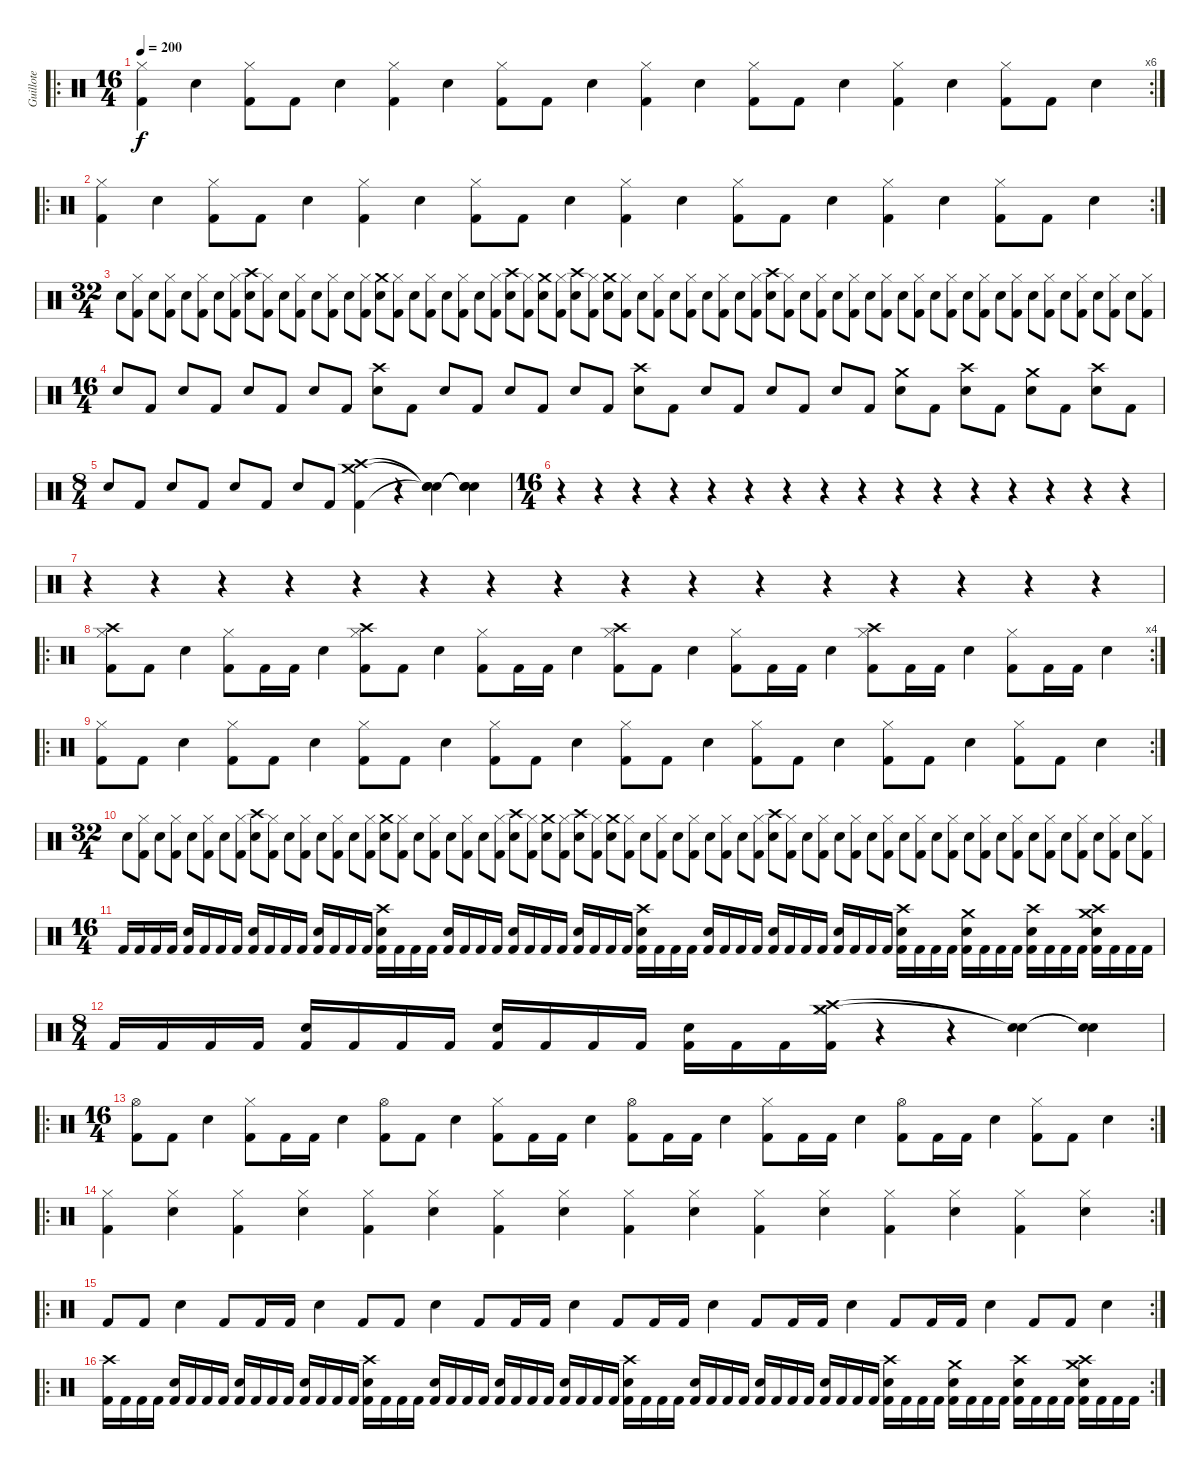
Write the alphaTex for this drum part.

\track ("Guillote" "Guillote") {instrument percussion}
\staff {score}
\articulation defaults
\ro
\rc 6
\ts (16 4)
\tempo 200
\clef neutral
\ks c
("Hi-Hat (closed)" "Kick (hit) 2").4{dy f} "Electric Snare (hit)".4 ("Hi-Hat (closed)" "Kick (hit) 2").8 "Kick (hit) 2".8 "Electric Snare (hit)".4 ("Hi-Hat (closed)" "Kick (hit) 2").4 "Electric Snare (hit)".4 ("Hi-Hat (closed)" "Kick (hit) 2").8 "Kick (hit) 2".8 "Electric Snare (hit)".4 ("Hi-Hat (closed)" "Kick (hit) 2").4 "Electric Snare (hit)".4 ("Hi-Hat (closed)" "Kick (hit) 2").8 "Kick (hit) 2".8 "Electric Snare (hit)".4 ("Hi-Hat (closed)" "Kick (hit) 2").4 "Electric Snare (hit)".4 ("Hi-Hat (closed)" "Kick (hit) 2").8 "Kick (hit) 2".8 "Electric Snare (hit)".4 |
\ro
\rc 2
("Hi-Hat (closed)" "Kick (hit) 2").4 "Electric Snare (hit)".4 ("Hi-Hat (closed)" "Kick (hit) 2").8 "Kick (hit) 2".8 "Electric Snare (hit)".4 ("Hi-Hat (closed)" "Kick (hit) 2").4 "Electric Snare (hit)".4 ("Hi-Hat (closed)" "Kick (hit) 2").8 "Kick (hit) 2".8 "Electric Snare (hit)".4 ("Hi-Hat (closed)" "Kick (hit) 2").4 "Electric Snare (hit)".4 ("Hi-Hat (closed)" "Kick (hit) 2").8 "Kick (hit) 2".8 "Electric Snare (hit)".4 ("Hi-Hat (closed)" "Kick (hit) 2").4 "Electric Snare (hit)".4 ("Hi-Hat (closed)" "Kick (hit) 2").8 "Kick (hit) 2".8 "Electric Snare (hit)".4 |
\ts (32 4)
"Electric Snare (hit)".8 ("Hi-Hat (closed)" "Kick (hit) 2").8 "Electric Snare (hit)".8 ("Hi-Hat (closed)" "Kick (hit) 2").8 "Electric Snare (hit)".8 ("Hi-Hat (closed)" "Kick (hit) 2").8 "Electric Snare (hit)".8 ("Hi-Hat (closed)" "Kick (hit) 2").8 ("Crash high (hit)" "Electric Snare (hit)").8 ("Hi-Hat (closed)" "Kick (hit) 2").8 "Electric Snare (hit)".8 ("Hi-Hat (closed)" "Kick (hit) 2").8 "Electric Snare (hit)".8 ("Hi-Hat (closed)" "Kick (hit) 2").8 "Electric Snare (hit)".8 ("Hi-Hat (closed)" "Kick (hit) 2").8 ("Crash medium (hit)" "Electric Snare (hit)").8 ("Hi-Hat (closed)" "Kick (hit) 2").8 "Electric Snare (hit)".8 ("Hi-Hat (closed)" "Kick (hit) 2").8 "Electric Snare (hit)".8 ("Hi-Hat (closed)" "Kick (hit) 2").8 "Electric Snare (hit)".8 ("Hi-Hat (closed)" "Kick (hit) 2").8 ("Crash high (hit)" "Electric Snare (hit)").8 ("Hi-Hat (closed)" "Kick (hit) 2").8 ("Crash medium (hit)" "Electric Snare (hit)").8 ("Hi-Hat (closed)" "Kick (hit) 2").8 ("Crash high (hit)" "Electric Snare (hit)").8 ("Hi-Hat (closed)" "Kick (hit) 2").8 ("Crash medium (hit)" "Electric Snare (hit)").8 ("Hi-Hat (closed)" "Kick (hit) 2").8 "Electric Snare (hit)".8 ("Hi-Hat (closed)" "Kick (hit) 2").8 "Electric Snare (hit)".8 ("Hi-Hat (closed)" "Kick (hit) 2").8 "Electric Snare (hit)".8 ("Hi-Hat (closed)" "Kick (hit) 2").8 "Electric Snare (hit)".8 ("Hi-Hat (closed)" "Kick (hit) 2").8 ("Crash high (hit)" "Electric Snare (hit)").8 ("Hi-Hat (closed)" "Kick (hit) 2").8 "Electric Snare (hit)".8 ("Hi-Hat (closed)" "Kick (hit) 2").8 "Electric Snare (hit)".8 ("Hi-Hat (closed)" "Kick (hit) 2").8 "Electric Snare (hit)".8 ("Hi-Hat (closed)" "Kick (hit) 2").8 "Electric Snare (hit)".8 ("Hi-Hat (closed)" "Kick (hit) 2").8 "Electric Snare (hit)".8 ("Hi-Hat (closed)" "Kick (hit) 2").8 "Electric Snare (hit)".8 ("Hi-Hat (closed)" "Kick (hit) 2").8 "Electric Snare (hit)".8 ("Hi-Hat (closed)" "Kick (hit) 2").8 "Electric Snare (hit)".8 ("Hi-Hat (closed)" "Kick (hit) 2").8 "Electric Snare (hit)".8 ("Hi-Hat (closed)" "Kick (hit) 2").8 "Electric Snare (hit)".8 ("Hi-Hat (closed)" "Kick (hit) 2").8 "Electric Snare (hit)".8 ("Hi-Hat (closed)" "Kick (hit) 2").8 |
\ts (16 4)
"Electric Snare (hit)".8 "Kick (hit) 2".8 "Electric Snare (hit)".8 "Kick (hit) 2".8 "Electric Snare (hit)".8 "Kick (hit) 2".8 "Electric Snare (hit)".8 "Kick (hit) 2".8 ("Crash high (hit)" "Electric Snare (hit)").8 "Kick (hit) 2".8 "Electric Snare (hit)".8 "Kick (hit) 2".8 "Electric Snare (hit)".8 "Kick (hit) 2".8 "Electric Snare (hit)".8 "Kick (hit) 2".8 ("Crash high (hit)" "Electric Snare (hit)").8 "Kick (hit) 2".8 "Electric Snare (hit)".8 "Kick (hit) 2".8 "Electric Snare (hit)".8 "Kick (hit) 2".8 "Electric Snare (hit)".8 "Kick (hit) 2".8 ("Crash medium (hit)" "Electric Snare (hit)").8 "Kick (hit) 2".8 ("Crash high (hit)" "Electric Snare (hit)").8 "Kick (hit) 2".8 ("Crash medium (hit)" "Electric Snare (hit)").8 "Kick (hit) 2".8 ("Crash high (hit)" "Electric Snare (hit)").8 "Kick (hit) 2".8 |
\ts (8 4)
"Electric Snare (hit)".8 "Kick (hit) 2".8 "Electric Snare (hit)".8 "Kick (hit) 2".8 "Electric Snare (hit)".8 "Kick (hit) 2".8 "Electric Snare (hit)".8 "Kick (hit) 2".8 ("Crash medium (hit)" "Crash high (hit)" "Kick (hit) 2").4 r.4 ("Snare (hit)"{t} "Snare (hit)"{t} "Snare (hit)"{t}).4 ("Snare (hit)"{t} "Snare (hit)"{t} "Snare (hit)"{t}).4 |
\ts (16 4)
r.4 r.4 r.4 r.4 r.4 r.4 r.4 r.4 r.4 r.4 r.4 r.4 r.4 r.4 r.4 r.4 |
r.4 r.4 r.4 r.4 r.4 r.4 r.4 r.4 r.4 r.4 r.4 r.4 r.4 r.4 r.4 r.4 |
\ro
\rc 4
("Crash high (hit)" "Hi-Hat (closed)" "Kick (hit) 2").8 "Kick (hit) 2".8 "Electric Snare (hit)".4 ("Hi-Hat (closed)" "Kick (hit) 2").8 "Kick (hit) 2".16 "Kick (hit) 2".16 "Electric Snare (hit)".4 ("Crash high (hit)" "Hi-Hat (closed)" "Kick (hit) 2").8 "Kick (hit) 2".8 "Electric Snare (hit)".4 ("Hi-Hat (closed)" "Kick (hit) 2").8 "Kick (hit) 2".16 "Kick (hit) 2".16 "Electric Snare (hit)".4 ("Crash high (hit)" "Hi-Hat (closed)" "Kick (hit) 2").8 "Kick (hit) 2".8 "Electric Snare (hit)".4 ("Hi-Hat (closed)" "Kick (hit) 2").8 "Kick (hit) 2".16 "Kick (hit) 2".16 "Electric Snare (hit)".4 ("Crash high (hit)" "Hi-Hat (closed)" "Kick (hit) 2").8 "Kick (hit) 2".16 "Kick (hit) 2".16 "Electric Snare (hit)".4 ("Hi-Hat (closed)" "Kick (hit) 2").8 "Kick (hit) 2".16 "Kick (hit) 2".16 "Electric Snare (hit)".4 |
\ro
\rc 2
("Hi-Hat (closed)" "Kick (hit) 2").8 "Kick (hit) 2".8 "Electric Snare (hit)".4 ("Hi-Hat (closed)" "Kick (hit) 2").8 "Kick (hit) 2".8 "Electric Snare (hit)".4 ("Hi-Hat (closed)" "Kick (hit) 2").8 "Kick (hit) 2".8 "Electric Snare (hit)".4 ("Hi-Hat (closed)" "Kick (hit) 2").8 "Kick (hit) 2".8 "Electric Snare (hit)".4 ("Hi-Hat (closed)" "Kick (hit) 2").8 "Kick (hit) 2".8 "Electric Snare (hit)".4 ("Hi-Hat (closed)" "Kick (hit) 2").8 "Kick (hit) 2".8 "Electric Snare (hit)".4 ("Hi-Hat (closed)" "Kick (hit) 2").8 "Kick (hit) 2".8 "Electric Snare (hit)".4 ("Hi-Hat (closed)" "Kick (hit) 2").8 "Kick (hit) 2".8 "Electric Snare (hit)".4 |
\ts (32 4)
"Electric Snare (hit)".8 ("Hi-Hat (closed)" "Kick (hit) 2").8 "Electric Snare (hit)".8 ("Hi-Hat (closed)" "Kick (hit) 2").8 "Electric Snare (hit)".8 ("Hi-Hat (closed)" "Kick (hit) 2").8 "Electric Snare (hit)".8 ("Hi-Hat (closed)" "Kick (hit) 2").8 ("Crash high (hit)" "Electric Snare (hit)").8 ("Hi-Hat (closed)" "Kick (hit) 2").8 "Electric Snare (hit)".8 ("Hi-Hat (closed)" "Kick (hit) 2").8 "Electric Snare (hit)".8 ("Hi-Hat (closed)" "Kick (hit) 2").8 "Electric Snare (hit)".8 ("Hi-Hat (closed)" "Kick (hit) 2").8 ("Crash medium (hit)" "Electric Snare (hit)").8 ("Hi-Hat (closed)" "Kick (hit) 2").8 "Electric Snare (hit)".8 ("Hi-Hat (closed)" "Kick (hit) 2").8 "Electric Snare (hit)".8 ("Hi-Hat (closed)" "Kick (hit) 2").8 "Electric Snare (hit)".8 ("Hi-Hat (closed)" "Kick (hit) 2").8 ("Crash high (hit)" "Electric Snare (hit)").8 ("Hi-Hat (closed)" "Kick (hit) 2").8 ("Crash medium (hit)" "Electric Snare (hit)").8 ("Hi-Hat (closed)" "Kick (hit) 2").8 ("Crash high (hit)" "Electric Snare (hit)").8 ("Hi-Hat (closed)" "Kick (hit) 2").8 ("Crash medium (hit)" "Electric Snare (hit)").8 ("Hi-Hat (closed)" "Kick (hit) 2").8 "Electric Snare (hit)".8 ("Hi-Hat (closed)" "Kick (hit) 2").8 "Electric Snare (hit)".8 ("Hi-Hat (closed)" "Kick (hit) 2").8 "Electric Snare (hit)".8 ("Hi-Hat (closed)" "Kick (hit) 2").8 "Electric Snare (hit)".8 ("Hi-Hat (closed)" "Kick (hit) 2").8 ("Crash high (hit)" "Electric Snare (hit)").8 ("Hi-Hat (closed)" "Kick (hit) 2").8 "Electric Snare (hit)".8 ("Hi-Hat (closed)" "Kick (hit) 2").8 "Electric Snare (hit)".8 ("Hi-Hat (closed)" "Kick (hit) 2").8 "Electric Snare (hit)".8 ("Hi-Hat (closed)" "Kick (hit) 2").8 "Electric Snare (hit)".8 ("Hi-Hat (closed)" "Kick (hit) 2").8 "Electric Snare (hit)".8 ("Hi-Hat (closed)" "Kick (hit) 2").8 "Electric Snare (hit)".8 ("Hi-Hat (closed)" "Kick (hit) 2").8 "Electric Snare (hit)".8 ("Hi-Hat (closed)" "Kick (hit) 2").8 "Electric Snare (hit)".8 ("Hi-Hat (closed)" "Kick (hit) 2").8 "Electric Snare (hit)".8 ("Hi-Hat (closed)" "Kick (hit) 2").8 "Electric Snare (hit)".8 ("Hi-Hat (closed)" "Kick (hit) 2").8 "Electric Snare (hit)".8 ("Hi-Hat (closed)" "Kick (hit) 2").8 |
\ts (16 4)
"Kick (hit) 2".16 "Kick (hit) 2".16 "Kick (hit) 2".16 "Kick (hit) 2".16 ("Electric Snare (hit)" "Kick (hit) 2").16 "Kick (hit) 2".16 "Kick (hit) 2".16 "Kick (hit) 2".16 ("Electric Snare (hit)" "Kick (hit) 2").16 "Kick (hit) 2".16 "Kick (hit) 2".16 "Kick (hit) 2".16 ("Electric Snare (hit)" "Kick (hit) 2").16 "Kick (hit) 2".16 "Kick (hit) 2".16 "Kick (hit) 2".16 ("Crash high (hit)" "Electric Snare (hit)" "Kick (hit) 2").16 "Kick (hit) 2".16 "Kick (hit) 2".16 "Kick (hit) 2".16 ("Electric Snare (hit)" "Kick (hit) 2").16 "Kick (hit) 2".16 "Kick (hit) 2".16 "Kick (hit) 2".16 ("Electric Snare (hit)" "Kick (hit) 2").16 "Kick (hit) 2".16 "Kick (hit) 2".16 "Kick (hit) 2".16 ("Electric Snare (hit)" "Kick (hit) 2").16 "Kick (hit) 2".16 "Kick (hit) 2".16 "Kick (hit) 2".16 ("Crash high (hit)" "Electric Snare (hit)" "Kick (hit) 2").16 "Kick (hit) 2".16 "Kick (hit) 2".16 "Kick (hit) 2".16 ("Electric Snare (hit)" "Kick (hit) 2").16 "Kick (hit) 2".16 "Kick (hit) 2".16 "Kick (hit) 2".16 ("Electric Snare (hit)" "Kick (hit) 2").16 "Kick (hit) 2".16 "Kick (hit) 2".16 "Kick (hit) 2".16 ("Electric Snare (hit)" "Kick (hit) 2").16 "Kick (hit) 2".16 "Kick (hit) 2".16 "Kick (hit) 2".16 ("Crash high (hit)" "Electric Snare (hit)" "Kick (hit) 2").16 "Kick (hit) 2".16 "Kick (hit) 2".16 "Kick (hit) 2".16 ("Crash medium (hit)" "Electric Snare (hit)" "Kick (hit) 2").16 "Kick (hit) 2".16 "Kick (hit) 2".16 "Kick (hit) 2".16 ("Crash high (hit)" "Electric Snare (hit)" "Kick (hit) 2").16 "Kick (hit) 2".16 "Kick (hit) 2".16 "Kick (hit) 2".16 ("Crash medium (hit)" "Crash high (hit)" "Electric Snare (hit)" "Kick (hit) 2").16 "Kick (hit) 2".16 "Kick (hit) 2".16 "Kick (hit) 2".16 |
\ts (8 4)
"Kick (hit) 2".16 "Kick (hit) 2".16 "Kick (hit) 2".16 "Kick (hit) 2".16 ("Electric Snare (hit)" "Kick (hit) 2").16 "Kick (hit) 2".16 "Kick (hit) 2".16 "Kick (hit) 2".16 ("Electric Snare (hit)" "Kick (hit) 2").16 "Kick (hit) 2".16 "Kick (hit) 2".16 "Kick (hit) 2".16 ("Electric Snare (hit)" "Kick (hit) 2").16 "Kick (hit) 2".16 "Kick (hit) 2".16 ("Crash high (hit)" "Crash medium (hit)" "Hi-Hat (closed)" "Kick (hit) 2").16 r.4 r.4 ("Snare (hit)"{t} "Snare (hit)"{t}).4 ("Snare (hit)"{t} "Snare (hit)"{t}).4 |
\ro
\rc 2
\ts (16 4)
("Hi-Hat (open)" "Kick (hit) 2").8 "Kick (hit) 2".8 "Electric Snare (hit)".4 ("Hi-Hat (closed)" "Kick (hit) 2").8 "Kick (hit) 2".16 "Kick (hit) 2".16 "Electric Snare (hit)".4 ("Hi-Hat (open)" "Kick (hit) 2").8 "Kick (hit) 2".8 "Electric Snare (hit)".4 ("Hi-Hat (closed)" "Kick (hit) 2").8 "Kick (hit) 2".16 "Kick (hit) 2".16 "Electric Snare (hit)".4 ("Hi-Hat (open)" "Kick (hit) 2").8 "Kick (hit) 2".16 "Kick (hit) 2".16 "Electric Snare (hit)".4 ("Hi-Hat (closed)" "Kick (hit) 2").8 "Kick (hit) 2".16 "Kick (hit) 2".16 "Electric Snare (hit)".4 ("Hi-Hat (open)" "Kick (hit) 2").8 "Kick (hit) 2".16 "Kick (hit) 2".16 "Electric Snare (hit)".4 ("Hi-Hat (closed)" "Kick (hit) 2").8 "Kick (hit) 2".8 "Electric Snare (hit)".4 |
\ro
\rc 2
("Hi-Hat (closed)" "Kick (hit) 2").4 ("Hi-Hat (closed)" "Electric Snare (hit)").4 ("Hi-Hat (closed)" "Kick (hit) 2").4 ("Hi-Hat (closed)" "Electric Snare (hit)").4 ("Hi-Hat (closed)" "Kick (hit) 2").4 ("Hi-Hat (closed)" "Electric Snare (hit)").4 ("Hi-Hat (closed)" "Kick (hit) 2").4 ("Hi-Hat (closed)" "Electric Snare (hit)").4 ("Hi-Hat (closed)" "Kick (hit) 2").4 ("Hi-Hat (closed)" "Electric Snare (hit)").4 ("Hi-Hat (closed)" "Kick (hit) 2").4 ("Hi-Hat (closed)" "Electric Snare (hit)").4 ("Hi-Hat (closed)" "Kick (hit) 2").4 ("Hi-Hat (closed)" "Electric Snare (hit)").4 ("Hi-Hat (closed)" "Kick (hit) 2").4 ("Hi-Hat (closed)" "Electric Snare (hit)").4 |
\ro
\rc 2 "Kick (hit) 2".8 "Kick (hit) 2".8 "Electric Snare (hit)".4 "Kick (hit) 2".8 "Kick (hit) 2".16 "Kick (hit) 2".16 "Electric Snare (hit)".4 "Kick (hit) 2".8 "Kick (hit) 2".8 "Electric Snare (hit)".4 "Kick (hit) 2".8 "Kick (hit) 2".16 "Kick (hit) 2".16 "Electric Snare (hit)".4 "Kick (hit) 2".8 "Kick (hit) 2".16 "Kick (hit) 2".16 "Electric Snare (hit)".4 "Kick (hit) 2".8 "Kick (hit) 2".16 "Kick (hit) 2".16 "Electric Snare (hit)".4 "Kick (hit) 2".8 "Kick (hit) 2".16 "Kick (hit) 2".16 "Electric Snare (hit)".4 "Kick (hit) 2".8 "Kick (hit) 2".8 "Electric Snare (hit)".4
|
\ro
\rc 2
("Crash high (hit)" "Kick (hit) 2").16 "Kick (hit) 2".16 "Kick (hit) 2".16 "Kick (hit) 2".16 ("Electric Snare (hit)" "Kick (hit) 2").16 "Kick (hit) 2".16 "Kick (hit) 2".16 "Kick (hit) 2".16 ("Electric Snare (hit)" "Kick (hit) 2").16 "Kick (hit) 2".16 "Kick (hit) 2".16 "Kick (hit) 2".16 ("Electric Snare (hit)" "Kick (hit) 2").16 "Kick (hit) 2".16 "Kick (hit) 2".16 "Kick (hit) 2".16 ("Crash high (hit)" "Electric Snare (hit)" "Kick (hit) 2").16 "Kick (hit) 2".16 "Kick (hit) 2".16 "Kick (hit) 2".16 ("Electric Snare (hit)" "Kick (hit) 2").16 "Kick (hit) 2".16 "Kick (hit) 2".16 "Kick (hit) 2".16 ("Electric Snare (hit)" "Kick (hit) 2").16 "Kick (hit) 2".16 "Kick (hit) 2".16 "Kick (hit) 2".16 ("Electric Snare (hit)" "Kick (hit) 2").16 "Kick (hit) 2".16 "Kick (hit) 2".16 "Kick (hit) 2".16 ("Crash high (hit)" "Electric Snare (hit)" "Kick (hit) 2").16 "Kick (hit) 2".16 "Kick (hit) 2".16 "Kick (hit) 2".16 ("Electric Snare (hit)" "Kick (hit) 2").16 "Kick (hit) 2".16 "Kick (hit) 2".16 "Kick (hit) 2".16 ("Electric Snare (hit)" "Kick (hit) 2").16 "Kick (hit) 2".16 "Kick (hit) 2".16 "Kick (hit) 2".16 ("Electric Snare (hit)" "Kick (hit) 2").16 "Kick (hit) 2".16 "Kick (hit) 2".16 "Kick (hit) 2".16 ("Crash high (hit)" "Electric Snare (hit)" "Kick (hit) 2").16 "Kick (hit) 2".16 "Kick (hit) 2".16 "Kick (hit) 2".16 ("Crash medium (hit)" "Electric Snare (hit)" "Kick (hit) 2").16 "Kick (hit) 2".16 "Kick (hit) 2".16 "Kick (hit) 2".16 ("Crash high (hit)" "Electric Snare (hit)" "Kick (hit) 2").16 "Kick (hit) 2".16 "Kick (hit) 2".16 "Kick (hit) 2".16 ("Crash medium (hit)" "Crash high (hit)" "Electric Snare (hit)" "Kick (hit) 2").16 "Kick (hit) 2".16 "Kick (hit) 2".16 "Kick (hit) 2".16
